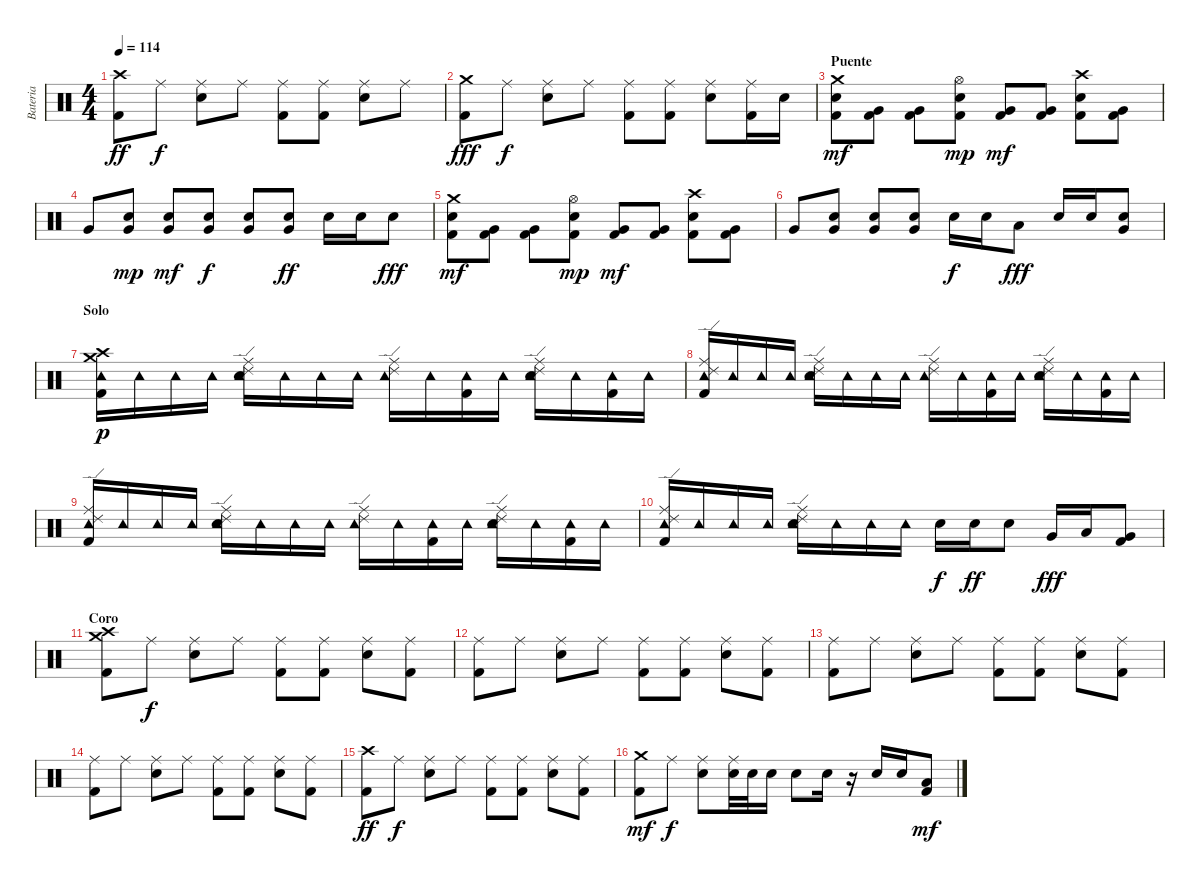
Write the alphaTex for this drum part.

\track ("Bateria" "Bateria") {instrument percussion}
\staff {score}
\articulation defaults
\ts (4 4)
\tempo 114
\clef neutral
\ks c
("Crash high (hit)" "Kick (hit) 2").8{dy ff} "Ride (middle)".8{dy f} ("Ride (middle)" "Electric Snare (hit)").8 "Ride (middle)".8 ("Ride (middle)" "Kick (hit) 2").8 ("Ride (middle)" "Kick (hit) 2").8 ("Ride (middle)" "Electric Snare (hit)").8 "Ride (middle)".8 |
("Crash medium (hit)" "Kick (hit) 2").8{dy fff} "Ride (middle)".8{dy f} ("Ride (middle)" "Electric Snare (hit)").8 "Ride (middle)".8 ("Ride (middle)" "Kick (hit) 2").8 ("Ride (middle)" "Kick (hit) 2").8 ("Ride (middle)" "Electric Snare (hit)").8 ("Ride (middle)" "Kick (hit) 2").16 "Electric Snare (hit)".16 |
\section ("" "Puente")
("Crash medium (hit)" "Electric Snare (hit)" "Kick (hit) 2").8{dy mf} ("Very Low Tom (hit)" "Kick (hit) 2").8 ("Very Low Tom (hit)" "Kick (hit) 2").8 ("Hi-Hat (open)" "Electric Snare (hit)" "Kick (hit) 2").8{dy mp} ("Very Low Tom (hit)" "Kick (hit) 2").8{dy mf} ("Very Low Tom (hit)" "Kick (hit) 2").8 ("Crash high (hit)" "Electric Snare (hit)" "Kick (hit) 2").8 ("Very Low Tom (hit)" "Kick (hit) 2").8 |
"Very Low Tom (hit)".8 ("Electric Snare (hit)" "Very Low Tom (hit)").8{dy mp} ("Electric Snare (hit)" "Very Low Tom (hit)").8{dy mf} ("Electric Snare (hit)" "Very Low Tom (hit)").8{dy f} ("Electric Snare (hit)" "Very Low Tom (hit)").8 ("Electric Snare (hit)" "Very Low Tom (hit)").8{dy ff} "Electric Snare (hit)".16 "Electric Snare (hit)".16 "Electric Snare (hit)".8{dy fff} |
("Crash medium (hit)" "Electric Snare (hit)" "Kick (hit) 2").8{dy mf} ("Very Low Tom (hit)" "Kick (hit) 2").8 ("Very Low Tom (hit)" "Kick (hit) 2").8 ("Hi-Hat (open)" "Electric Snare (hit)" "Kick (hit) 2").8{dy mp} ("Very Low Tom (hit)" "Kick (hit) 2").8{dy mf} ("Very Low Tom (hit)" "Kick (hit) 2").8 ("Crash high (hit)" "Electric Snare (hit)" "Kick (hit) 2").8 ("Very Low Tom (hit)" "Kick (hit) 2").8 |
"Very Low Tom (hit)".8 ("Electric Snare (hit)" "Very Low Tom (hit)").8 ("Electric Snare (hit)" "Very Low Tom (hit)").8 ("Electric Snare (hit)" "Very Low Tom (hit)").8 "Electric Snare (hit)".16{dy f} "Electric Snare (hit)".16 "Low Tom (hit)".8{dy fff} "Electric Snare (hit)".16 "Electric Snare (hit)".16 ("Electric Snare (hit)" "Very Low Tom (hit)").8 |
\section ("" "Solo")
("Crash medium (hit)" "Crash high (hit)" "Tambourine (hit)" "Kick (hit) 2").16{dy p} "Tambourine (hit)".16 "Tambourine (hit)".16 "Tambourine (hit)".16 ("Ride (edge) 2" "Ride (middle)" "Electric Snare (hit)" "Tambourine (hit)").16 "Tambourine (hit)".16 "Tambourine (hit)".16 "Tambourine (hit)".16 ("Ride (edge) 2" "Ride (middle)" "Tambourine (hit)").16 "Tambourine (hit)".16 ("Tambourine (hit)" "Kick (hit) 2").16 "Tambourine (hit)".16 ("Ride (edge) 2" "Ride (middle)" "Electric Snare (hit)" "Tambourine (hit)").16 "Tambourine (hit)".16 ("Tambourine (hit)" "Kick (hit) 2").16 "Tambourine (hit)".16 |
("Ride (edge) 2" "Ride (middle)" "Tambourine (hit)" "Kick (hit) 2").16 "Tambourine (hit)".16 "Tambourine (hit)".16 "Tambourine (hit)".16 ("Ride (edge) 2" "Ride (middle)" "Electric Snare (hit)" "Tambourine (hit)").16 "Tambourine (hit)".16 "Tambourine (hit)".16 "Tambourine (hit)".16 ("Ride (edge) 2" "Ride (middle)" "Tambourine (hit)").16 "Tambourine (hit)".16 ("Tambourine (hit)" "Kick (hit) 2").16 "Tambourine (hit)".16 ("Ride (edge) 2" "Ride (middle)" "Electric Snare (hit)" "Tambourine (hit)").16 "Tambourine (hit)".16 ("Tambourine (hit)" "Kick (hit) 2").16 "Tambourine (hit)".16 |
("Ride (edge) 2" "Ride (middle)" "Tambourine (hit)" "Kick (hit) 2").16 "Tambourine (hit)".16 "Tambourine (hit)".16 "Tambourine (hit)".16 ("Ride (edge) 2" "Ride (middle)" "Electric Snare (hit)" "Tambourine (hit)").16 "Tambourine (hit)".16 "Tambourine (hit)".16 "Tambourine (hit)".16 ("Ride (edge) 2" "Ride (middle)" "Tambourine (hit)").16 "Tambourine (hit)".16 ("Tambourine (hit)" "Kick (hit) 2").16 "Tambourine (hit)".16 ("Ride (edge) 2" "Ride (middle)" "Electric Snare (hit)" "Tambourine (hit)").16 "Tambourine (hit)".16 ("Tambourine (hit)" "Kick (hit) 2").16 "Tambourine (hit)".16 |
("Ride (edge) 2" "Ride (middle)" "Tambourine (hit)" "Kick (hit) 2").16 "Tambourine (hit)".16 "Tambourine (hit)".16 "Tambourine (hit)".16 ("Ride (edge) 2" "Ride (middle)" "Electric Snare (hit)" "Tambourine (hit)").16 "Tambourine (hit)".16 "Tambourine (hit)".16 "Tambourine (hit)".16 "Electric Snare (hit)".16{dy f} "Electric Snare (hit)".16{dy ff} "Electric Snare (hit)".8 "Very Low Tom (hit)".16{dy fff} "Low Tom (hit)".16 ("Very Low Tom (hit)" "Kick (hit) 2").8 |
\section ("" "Coro")
("Crash medium (hit)" "Crash high (hit)" "Kick (hit) 2").8 "Ride (middle)".8{dy f} ("Ride (middle)" "Electric Snare (hit)").8 "Ride (middle)".8 ("Ride (middle)" "Kick (hit) 2").8 ("Ride (middle)" "Kick (hit) 2").8 ("Ride (middle)" "Electric Snare (hit)").8 ("Ride (middle)" "Kick (hit) 2").8 |
("Ride (middle)" "Kick (hit) 2").8 "Ride (middle)".8 ("Ride (middle)" "Electric Snare (hit)").8 "Ride (middle)".8 ("Ride (middle)" "Kick (hit) 2").8 ("Ride (middle)" "Kick (hit) 2").8 ("Ride (middle)" "Electric Snare (hit)").8 ("Ride (middle)" "Kick (hit) 2").8 |
("Ride (middle)" "Kick (hit) 2").8 "Ride (middle)".8 ("Ride (middle)" "Electric Snare (hit)").8 "Ride (middle)".8 ("Ride (middle)" "Kick (hit) 2").8 ("Ride (middle)" "Kick (hit) 2").8 ("Ride (middle)" "Electric Snare (hit)").8 ("Ride (middle)" "Kick (hit) 2").8 |
("Ride (middle)" "Kick (hit) 2").8 "Ride (middle)".8 ("Ride (middle)" "Electric Snare (hit)").8 "Ride (middle)".8 ("Ride (middle)" "Kick (hit) 2").8 ("Ride (middle)" "Kick (hit) 2").8 ("Ride (middle)" "Electric Snare (hit)").8 ("Ride (middle)" "Kick (hit) 2").8 |
("Crash high (hit)" "Kick (hit) 2").8{dy ff} "Ride (middle)".8{dy f} ("Ride (middle)" "Electric Snare (hit)").8 "Ride (middle)".8 ("Ride (middle)" "Kick (hit) 2").8 ("Ride (middle)" "Kick (hit) 2").8 ("Ride (middle)" "Electric Snare (hit)").8 ("Ride (middle)" "Kick (hit) 2").8 |
("Crash medium (hit)" "Kick (hit) 2").8{dy mf} "Ride (middle)".8{dy f} ("Ride (middle)" "Electric Snare (hit)").8 ("Ride (middle)" "Electric Snare (hit)").32 "Electric Snare (hit)".32 "Electric Snare (hit)".16 "Electric Snare (hit)".8 "Electric Snare (hit)".16 r.16 "Electric Snare (hit)".16 "Electric Snare (hit)".16 ("Low Tom (hit)" "Kick (hit) 2").8{dy mf}
